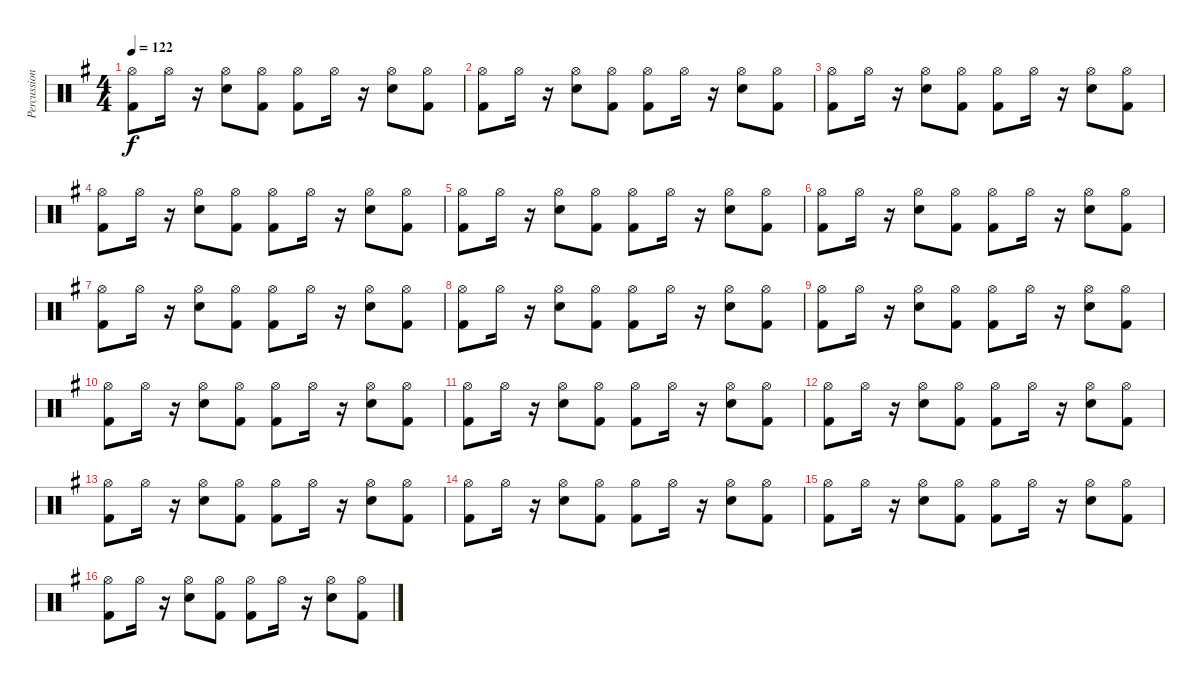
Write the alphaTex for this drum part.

\track ("Percussion" "Percussion") {instrument percussion}
\staff {score}
\articulation defaults
\ts (4 4)
\tempo 122
\clef neutral
\ks g
("Kick (hit) 2" "Hi-Hat (open)").8{dy f} "Hi-Hat (open)".16 r.16 ("Electric Snare (hit)" "Hi-Hat (open)").8 ("Kick (hit) 2" "Hi-Hat (open)").8 ("Kick (hit) 2" "Hi-Hat (open)").8 "Hi-Hat (open)".16 r.16 ("Electric Snare (hit)" "Hi-Hat (open)").8 ("Kick (hit) 2" "Hi-Hat (open)").8 |
("Hi-Hat (open)" "Kick (hit) 2").8 "Hi-Hat (open)".16 r.16 ("Electric Snare (hit)" "Hi-Hat (open)").8 ("Kick (hit) 2" "Hi-Hat (open)").8 ("Kick (hit) 2" "Hi-Hat (open)").8 "Hi-Hat (open)".16 r.16 ("Electric Snare (hit)" "Hi-Hat (open)").8 ("Kick (hit) 2" "Hi-Hat (open)").8 |
("Hi-Hat (open)" "Kick (hit) 2").8 "Hi-Hat (open)".16 r.16 ("Electric Snare (hit)" "Hi-Hat (open)").8 ("Kick (hit) 2" "Hi-Hat (open)").8 ("Kick (hit) 2" "Hi-Hat (open)").8 "Hi-Hat (open)".16 r.16 ("Electric Snare (hit)" "Hi-Hat (open)").8 ("Kick (hit) 2" "Hi-Hat (open)").8 |
("Hi-Hat (open)" "Kick (hit) 2").8 "Hi-Hat (open)".16 r.16 ("Electric Snare (hit)" "Hi-Hat (open)").8 ("Kick (hit) 2" "Hi-Hat (open)").8 ("Kick (hit) 2" "Hi-Hat (open)").8 "Hi-Hat (open)".16 r.16 ("Electric Snare (hit)" "Hi-Hat (open)").8 ("Kick (hit) 2" "Hi-Hat (open)").8 |
("Kick (hit) 2" "Hi-Hat (open)").8 "Hi-Hat (open)".16 r.16 ("Electric Snare (hit)" "Hi-Hat (open)").8 ("Kick (hit) 2" "Hi-Hat (open)").8 ("Kick (hit) 2" "Hi-Hat (open)").8 "Hi-Hat (open)".16 r.16 ("Electric Snare (hit)" "Hi-Hat (open)").8 ("Kick (hit) 2" "Hi-Hat (open)").8 |
("Kick (hit) 2" "Hi-Hat (open)").8 "Hi-Hat (open)".16 r.16 ("Electric Snare (hit)" "Hi-Hat (open)").8 ("Kick (hit) 2" "Hi-Hat (open)").8 ("Kick (hit) 2" "Hi-Hat (open)").8 "Hi-Hat (open)".16 r.16 ("Electric Snare (hit)" "Hi-Hat (open)").8 ("Kick (hit) 2" "Hi-Hat (open)").8 |
("Kick (hit) 2" "Hi-Hat (open)").8 "Hi-Hat (open)".16 r.16 ("Electric Snare (hit)" "Hi-Hat (open)").8 ("Kick (hit) 2" "Hi-Hat (open)").8 ("Kick (hit) 2" "Hi-Hat (open)").8 "Hi-Hat (open)".16 r.16 ("Electric Snare (hit)" "Hi-Hat (open)").8 ("Kick (hit) 2" "Hi-Hat (open)").8 |
("Kick (hit) 2" "Hi-Hat (open)").8 "Hi-Hat (open)".16 r.16 ("Electric Snare (hit)" "Hi-Hat (open)").8 ("Kick (hit) 2" "Hi-Hat (open)").8 ("Kick (hit) 2" "Hi-Hat (open)").8 "Hi-Hat (open)".16 r.16 ("Electric Snare (hit)" "Hi-Hat (open)").8 ("Kick (hit) 2" "Hi-Hat (open)").8 |
("Hi-Hat (open)" "Kick (hit) 2").8 "Hi-Hat (open)".16 r.16 ("Electric Snare (hit)" "Hi-Hat (open)").8 ("Kick (hit) 2" "Hi-Hat (open)").8 ("Kick (hit) 2" "Hi-Hat (open)").8 "Hi-Hat (open)".16 r.16 ("Electric Snare (hit)" "Hi-Hat (open)").8 ("Kick (hit) 2" "Hi-Hat (open)").8 |
("Kick (hit) 2" "Hi-Hat (open)").8 "Hi-Hat (open)".16 r.16 ("Electric Snare (hit)" "Hi-Hat (open)").8 ("Kick (hit) 2" "Hi-Hat (open)").8 ("Kick (hit) 2" "Hi-Hat (open)").8 "Hi-Hat (open)".16 r.16 ("Electric Snare (hit)" "Hi-Hat (open)").8 ("Kick (hit) 2" "Hi-Hat (open)").8 |
("Hi-Hat (open)" "Kick (hit) 2").8 "Hi-Hat (open)".16 r.16 ("Electric Snare (hit)" "Hi-Hat (open)").8 ("Kick (hit) 2" "Hi-Hat (open)").8 ("Kick (hit) 2" "Hi-Hat (open)").8 "Hi-Hat (open)".16 r.16 ("Electric Snare (hit)" "Hi-Hat (open)").8 ("Kick (hit) 2" "Hi-Hat (open)").8 |
("Kick (hit) 2" "Hi-Hat (open)").8 "Hi-Hat (open)".16 r.16 ("Electric Snare (hit)" "Hi-Hat (open)").8 ("Kick (hit) 2" "Hi-Hat (open)").8 ("Kick (hit) 2" "Hi-Hat (open)").8 "Hi-Hat (open)".16 r.16 ("Electric Snare (hit)" "Hi-Hat (open)").8 ("Kick (hit) 2" "Hi-Hat (open)").8 |
("Kick (hit) 2" "Hi-Hat (open)").8 "Hi-Hat (open)".16 r.16 ("Electric Snare (hit)" "Hi-Hat (open)").8 ("Kick (hit) 2" "Hi-Hat (open)").8 ("Kick (hit) 2" "Hi-Hat (open)").8 "Hi-Hat (open)".16 r.16 ("Electric Snare (hit)" "Hi-Hat (open)").8 ("Kick (hit) 2" "Hi-Hat (open)").8 |
("Kick (hit) 2" "Hi-Hat (open)").8 "Hi-Hat (open)".16 r.16 ("Electric Snare (hit)" "Hi-Hat (open)").8 ("Kick (hit) 2" "Hi-Hat (open)").8 ("Kick (hit) 2" "Hi-Hat (open)").8 "Hi-Hat (open)".16 r.16 ("Electric Snare (hit)" "Hi-Hat (open)").8 ("Kick (hit) 2" "Hi-Hat (open)").8 |
("Kick (hit) 2" "Hi-Hat (open)").8 "Hi-Hat (open)".16 r.16 ("Electric Snare (hit)" "Hi-Hat (open)").8 ("Kick (hit) 2" "Hi-Hat (open)").8 ("Kick (hit) 2" "Hi-Hat (open)").8 "Hi-Hat (open)".16 r.16 ("Electric Snare (hit)" "Hi-Hat (open)").8 ("Kick (hit) 2" "Hi-Hat (open)").8 |
("Kick (hit) 2" "Hi-Hat (open)").8 "Hi-Hat (open)".16 r.16 ("Electric Snare (hit)" "Hi-Hat (open)").8 ("Kick (hit) 2" "Hi-Hat (open)").8 ("Kick (hit) 2" "Hi-Hat (open)").8 "Hi-Hat (open)".16 r.16 ("Electric Snare (hit)" "Hi-Hat (open)").8 ("Kick (hit) 2" "Hi-Hat (open)").8
